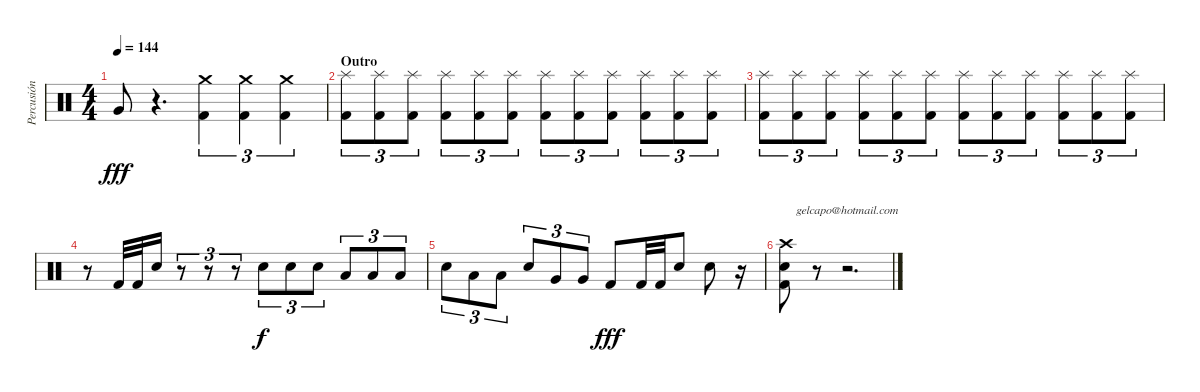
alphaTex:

\track ("Percusión" "Percusión") {instrument percussion}
\staff {score}
\articulation defaults
\chord ("gelcapo@hotmail.com") {firstfret 0}
\ts (4 4)
\tempo 144
\clef neutral
\ks c "Very Low Tom (hit)".8{dy fff}
r.4{d} ("Crash medium (hit)" "Kick (hit) 2").4{tu (3 2)} ("Crash medium (hit)" "Kick (hit) 2").4{tu (3 2)} ("Crash medium (hit)" "Kick (hit) 2").4{tu (3 2)} |
\section ("" "Outro")
("Splash (hit)" "Kick (hit) 2").8{tu (3 2)} ("Splash (hit)" "Kick (hit) 2").8{tu (3 2)} ("Splash (hit)" "Kick (hit) 2").8{tu (3 2)} ("Splash (hit)" "Kick (hit) 2").8{tu (3 2)} ("Splash (hit)" "Kick (hit) 2").8{tu (3 2)} ("Splash (hit)" "Kick (hit) 2").8{tu (3 2)} ("Splash (hit)" "Kick (hit) 2").8{tu (3 2)} ("Splash (hit)" "Kick (hit) 2").8{tu (3 2)} ("Splash (hit)" "Kick (hit) 2").8{tu (3 2)} ("Splash (hit)" "Kick (hit) 2").8{tu (3 2)} ("Splash (hit)" "Kick (hit) 2").8{tu (3 2)} ("Splash (hit)" "Kick (hit) 2").8{tu (3 2)} |
("Splash (hit)" "Kick (hit) 2").8{tu (3 2)} ("Splash (hit)" "Kick (hit) 2").8{tu (3 2)} ("Splash (hit)" "Kick (hit) 2").8{tu (3 2)} ("Splash (hit)" "Kick (hit) 2").8{tu (3 2)} ("Splash (hit)" "Kick (hit) 2").8{tu (3 2)} ("Splash (hit)" "Kick (hit) 2").8{tu (3 2)} ("Splash (hit)" "Kick (hit) 2").8{tu (3 2)} ("Splash (hit)" "Kick (hit) 2").8{tu (3 2)} ("Splash (hit)" "Kick (hit) 2").8{tu (3 2)} ("Splash (hit)" "Kick (hit) 2").8{tu (3 2)} ("Splash (hit)" "Kick (hit) 2").8{tu (3 2)} ("Splash (hit)" "Kick (hit) 2").8{tu (3 2)} |
r.8 "Kick (hit) 2".32 "Kick (hit) 2".32 "Snare (hit) 2".16 r.8{tu (3 2)} r.8{tu (3 2)} r.8{tu (3 2)} "Snare (hit) 2".8{tu (3 2) dy f} "Snare (hit) 2".8{tu (3 2)} "Snare (hit) 2".8{tu (3 2)} "Low Tom (hit)".8{tu (3 2)} "Low Tom (hit)".8{tu (3 2)} "Low Tom (hit)".8{tu (3 2)} |
"Snare (hit) 2".8{tu (3 2)} "Low Tom (hit)".8{tu (3 2)} "Low Tom (hit)".8{tu (3 2)} "Snare (hit) 2".8{tu (3 2)} "Very Low Tom (hit)".8{tu (3 2)} "Very Low Tom (hit)".8{tu (3 2)} "Kick (hit) 2".8{dy fff} "Kick (hit) 2".32 "Kick (hit) 2".32 "Snare (hit) 2".8 "Snare (hit) 2".8 r.16 |
("Crash high (hit)" "Snare (hit) 2" "Kick (hit) 2").8 r.8 r.2{d ch "gelcapo@hotmail.com"}
